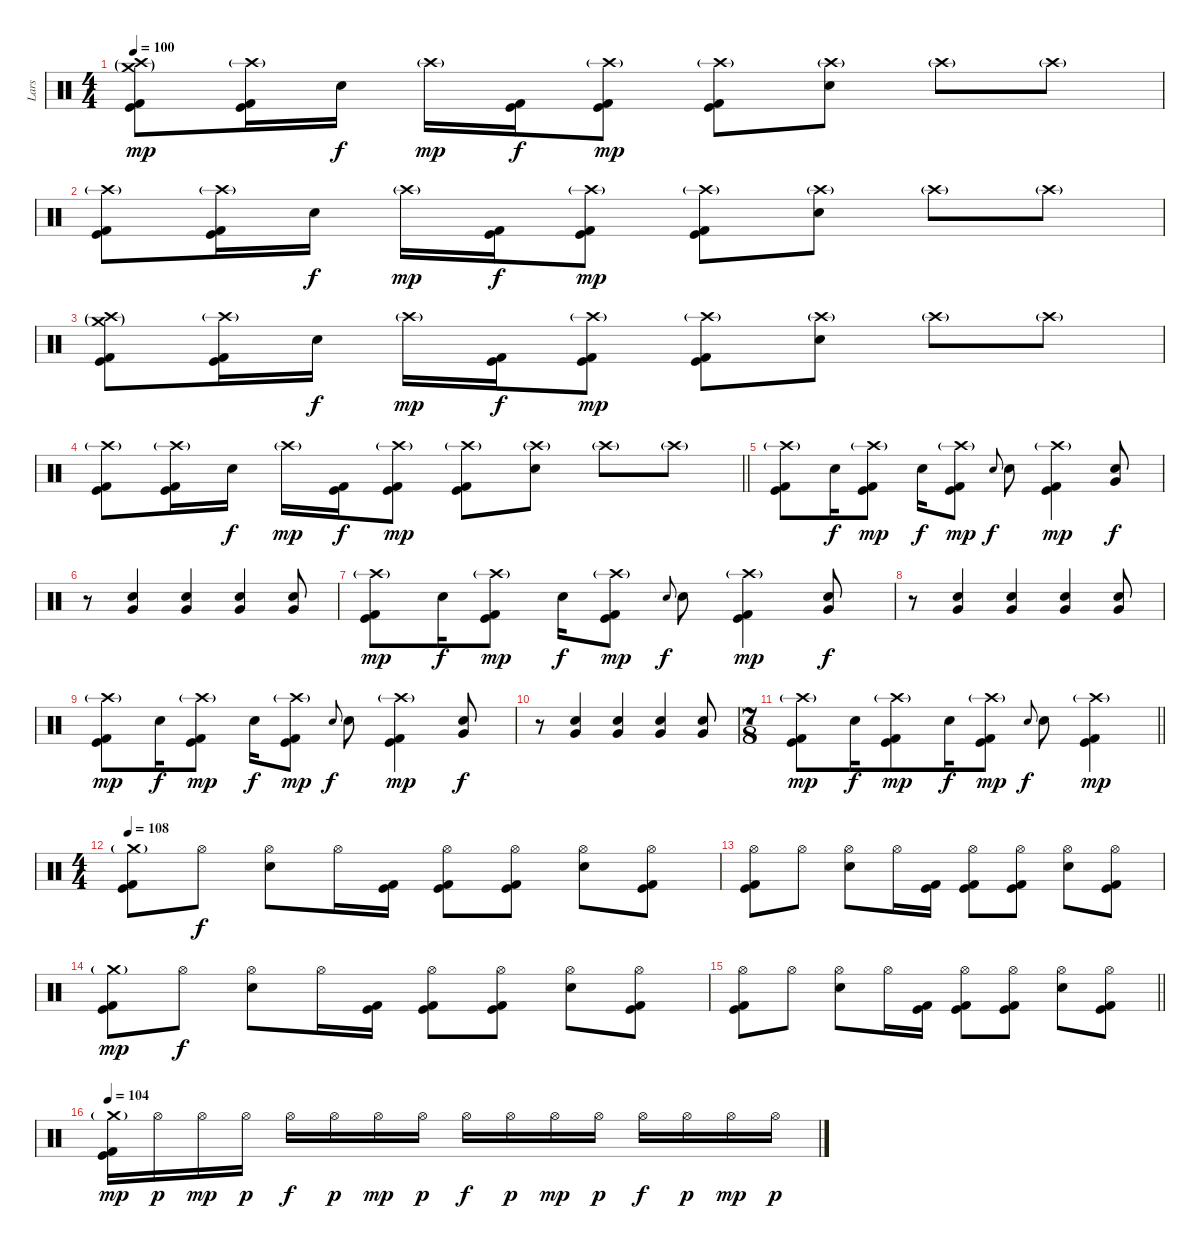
\track ("Lars" "Lars") {instrument percussion}
\staff {score}
\articulation defaults
\ts (4 4)
\tempo 100
\clef neutral
\ks c
("Crash high (hit)"{g} "Crash medium (hit)"{g} "Kick (hit)" "Kick (hit) 2").8{dy mp} ("Crash high (hit)"{g} "Kick (hit)" "Kick (hit) 2").16 "Electric Snare (hit)".16{dy f} "Crash high (hit)"{g}.16{dy mp} ("Kick (hit)" "Kick (hit) 2").16{dy f} ("Crash high (hit)"{g} "Kick (hit)" "Kick (hit) 2").8{dy mp} ("Crash high (hit)"{g} "Kick (hit)" "Kick (hit) 2").8 ("Crash high (hit)"{g} "Electric Snare (hit)").8 "Crash high (hit)"{g}.8 "Crash high (hit)"{g}.8 |
("Crash high (hit)"{g} "Kick (hit)" "Kick (hit) 2").8 ("Crash high (hit)"{g} "Kick (hit)" "Kick (hit) 2").16 "Electric Snare (hit)".16{dy f} "Crash high (hit)"{g}.16{dy mp} ("Kick (hit)" "Kick (hit) 2").16{dy f} ("Crash high (hit)"{g} "Kick (hit)" "Kick (hit) 2").8{dy mp} ("Crash high (hit)"{g} "Kick (hit)" "Kick (hit) 2").8 ("Crash high (hit)"{g} "Electric Snare (hit)").8 "Crash high (hit)"{g}.8 "Crash high (hit)"{g}.8 |
("Crash high (hit)"{g} "Crash medium (hit)"{g} "Kick (hit)" "Kick (hit) 2").8 ("Crash high (hit)"{g} "Kick (hit)" "Kick (hit) 2").16 "Electric Snare (hit)".16{dy f} "Crash high (hit)"{g}.16{dy mp} ("Kick (hit)" "Kick (hit) 2").16{dy f} ("Crash high (hit)"{g} "Kick (hit)" "Kick (hit) 2").8{dy mp} ("Crash high (hit)"{g} "Kick (hit)" "Kick (hit) 2").8 ("Crash high (hit)"{g} "Electric Snare (hit)").8 "Crash high (hit)"{g}.8 "Crash high (hit)"{g}.8 |
\barLineRight lightlight
("Crash high (hit)"{g} "Kick (hit)" "Kick (hit) 2").8 ("Crash high (hit)"{g} "Kick (hit)" "Kick (hit) 2").16 "Electric Snare (hit)".16{dy f} "Crash high (hit)"{g}.16{dy mp} ("Kick (hit)" "Kick (hit) 2").16{dy f} ("Crash high (hit)"{g} "Kick (hit)" "Kick (hit) 2").8{dy mp} ("Crash high (hit)"{g} "Kick (hit)" "Kick (hit) 2").8 ("Crash high (hit)"{g} "Electric Snare (hit)").8 "Crash high (hit)"{g}.8 "Crash high (hit)"{g}.8 |
\section ("" "")
("Crash high (hit)"{g} "Kick (hit)" "Kick (hit) 2").8 "Electric Snare (hit)".16{dy f} ("Crash high (hit)"{g} "Kick (hit)" "Kick (hit) 2").8{dy mp} "Electric Snare (hit)".16{dy f} ("Crash high (hit)"{g} "Kick (hit)" "Kick (hit) 2").8{dy mp} "Electric Snare (hit)".8{gr onbeat dy f} "Electric Snare (hit)".8 ("Crash high (hit)"{g} "Kick (hit)" "Kick (hit) 2").4{dy mp} ("Electric Snare (hit)" "Very Low Tom (hit)").8{dy f} |
r.8 ("Electric Snare (hit)" "Very Low Tom (hit)").4 ("Electric Snare (hit)" "Very Low Tom (hit)").4 ("Electric Snare (hit)" "Very Low Tom (hit)").4 ("Electric Snare (hit)" "Very Low Tom (hit)").8 |
("Crash high (hit)"{g} "Kick (hit)" "Kick (hit) 2").8{dy mp} "Electric Snare (hit)".16{dy f} ("Crash high (hit)"{g} "Kick (hit)" "Kick (hit) 2").8{dy mp} "Electric Snare (hit)".16{dy f} ("Crash high (hit)"{g} "Kick (hit)" "Kick (hit) 2").8{dy mp} "Electric Snare (hit)".8{gr onbeat dy f} "Electric Snare (hit)".8 ("Crash high (hit)"{g} "Kick (hit)" "Kick (hit) 2").4{dy mp} ("Electric Snare (hit)" "Very Low Tom (hit)").8{dy f} |
r.8 ("Electric Snare (hit)" "Very Low Tom (hit)").4 ("Electric Snare (hit)" "Very Low Tom (hit)").4 ("Electric Snare (hit)" "Very Low Tom (hit)").4 ("Electric Snare (hit)" "Very Low Tom (hit)").8 |
("Crash high (hit)"{g} "Kick (hit)" "Kick (hit) 2").8{dy mp} "Electric Snare (hit)".16{dy f} ("Crash high (hit)"{g} "Kick (hit)" "Kick (hit) 2").8{dy mp} "Electric Snare (hit)".16{dy f} ("Crash high (hit)"{g} "Kick (hit)" "Kick (hit) 2").8{dy mp} "Electric Snare (hit)".8{gr onbeat dy f} "Electric Snare (hit)".8 ("Crash high (hit)"{g} "Kick (hit)" "Kick (hit) 2").4{dy mp} ("Electric Snare (hit)" "Very Low Tom (hit)").8{dy f} |
r.8 ("Electric Snare (hit)" "Very Low Tom (hit)").4 ("Electric Snare (hit)" "Very Low Tom (hit)").4 ("Electric Snare (hit)" "Very Low Tom (hit)").4 ("Electric Snare (hit)" "Very Low Tom (hit)").8 |
\ts (7 8)
\barLineRight lightlight
("Crash high (hit)"{g} "Kick (hit)" "Kick (hit) 2").8{dy mp} "Electric Snare (hit)".16{dy f} ("Crash high (hit)"{g} "Kick (hit)" "Kick (hit) 2").8{dy mp} "Electric Snare (hit)".16{dy f} ("Crash high (hit)"{g} "Kick (hit)" "Kick (hit) 2").8{dy mp} "Electric Snare (hit)".8{gr onbeat dy f} "Electric Snare (hit)".8 ("Crash high (hit)"{g} "Kick (hit)" "Kick (hit) 2").4{dy mp} |
\ts (4 4)
\section ("" "")
\tempo 108
("Crash medium (hit)"{g} "Kick (hit)" "Kick (hit) 2").8 "Hi-Hat (open)".8{dy f} ("Hi-Hat (open)" "Electric Snare (hit)").8 "Hi-Hat (open)".16 ("Kick (hit)" "Kick (hit) 2").16 ("Hi-Hat (open)" "Kick (hit)" "Kick (hit) 2").8 ("Hi-Hat (open)" "Kick (hit)" "Kick (hit) 2").8 ("Hi-Hat (open)" "Electric Snare (hit)").8 ("Hi-Hat (open)" "Kick (hit)" "Kick (hit) 2").8 |
("Hi-Hat (open)" "Kick (hit)" "Kick (hit) 2").8 "Hi-Hat (open)".8 ("Hi-Hat (open)" "Electric Snare (hit)").8 "Hi-Hat (open)".16 ("Kick (hit)" "Kick (hit) 2").16 ("Hi-Hat (open)" "Kick (hit)" "Kick (hit) 2").8 ("Hi-Hat (open)" "Kick (hit)" "Kick (hit) 2").8 ("Hi-Hat (open)" "Electric Snare (hit)").8 ("Hi-Hat (open)" "Kick (hit)" "Kick (hit) 2").8 |
("Crash medium (hit)"{g} "Kick (hit)" "Kick (hit) 2").8{dy mp} "Hi-Hat (open)".8{dy f} ("Hi-Hat (open)" "Electric Snare (hit)").8 "Hi-Hat (open)".16 ("Kick (hit)" "Kick (hit) 2").16 ("Hi-Hat (open)" "Kick (hit)" "Kick (hit) 2").8 ("Hi-Hat (open)" "Kick (hit)" "Kick (hit) 2").8 ("Hi-Hat (open)" "Electric Snare (hit)").8 ("Hi-Hat (open)" "Kick (hit)" "Kick (hit) 2").8 |
\barLineRight lightlight
("Hi-Hat (open)" "Kick (hit)" "Kick (hit) 2").8 "Hi-Hat (open)".8 ("Hi-Hat (open)" "Electric Snare (hit)").8 "Hi-Hat (open)".16 ("Kick (hit)" "Kick (hit) 2").16 ("Hi-Hat (open)" "Kick (hit)" "Kick (hit) 2").8 ("Hi-Hat (open)" "Kick (hit)" "Kick (hit) 2").8 ("Hi-Hat (open)" "Electric Snare (hit)").8 ("Hi-Hat (open)" "Kick (hit)" "Kick (hit) 2").8 |
\section ("" "")
\tempo 104
("Crash medium (hit)"{g} "Kick (hit)" "Kick (hit) 2").16{dy mp} "Hi-Hat (open)".16{dy p} "Hi-Hat (open)".16{dy mp} "Hi-Hat (open)".16{dy p} "Hi-Hat (open)".16{dy f} "Hi-Hat (open)".16{dy p} "Hi-Hat (open)".16{dy mp} "Hi-Hat (open)".16{dy p} "Hi-Hat (open)".16{dy f} "Hi-Hat (open)".16{dy p} "Hi-Hat (open)".16{dy mp} "Hi-Hat (open)".16{dy p} "Hi-Hat (open)".16{dy f} "Hi-Hat (open)".16{dy p} "Hi-Hat (open)".16{dy mp} "Hi-Hat (open)".16{dy p}
